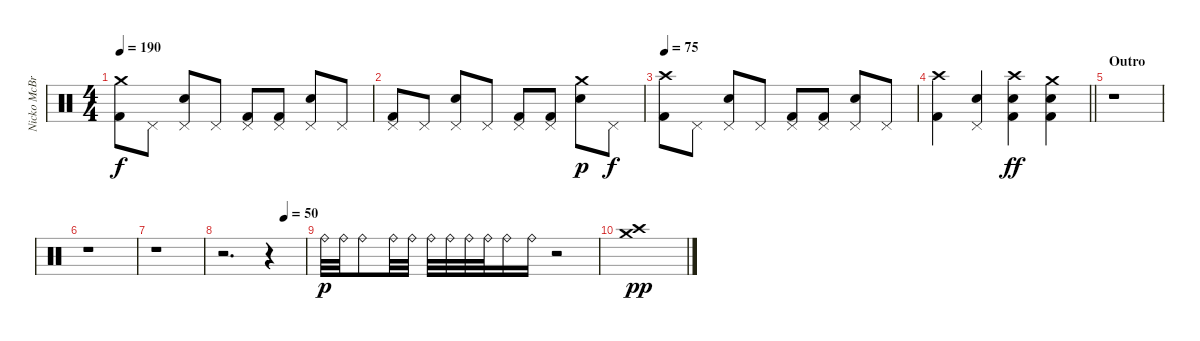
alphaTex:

\track ("Nicko McBrain" "Nicko McBr") {instrument percussion}
\staff {score}
\articulation defaults
\ts (4 4)
\tempo 190
\clef neutral
\ks c
("Crash medium (hit)" "Kick (hit) 2").8{dy f} "Pedal Hi-Hat (hit)".8 ("Pedal Hi-Hat (hit)" "Electric Snare (hit)").8 "Pedal Hi-Hat (hit)".8 ("Pedal Hi-Hat (hit)" "Kick (hit) 2").8 ("Pedal Hi-Hat (hit)" "Kick (hit) 2").8 ("Pedal Hi-Hat (hit)" "Electric Snare (hit)").8 "Pedal Hi-Hat (hit)".8 |
("Pedal Hi-Hat (hit)" "Kick (hit) 2").8 "Pedal Hi-Hat (hit)".8 ("Pedal Hi-Hat (hit)" "Electric Snare (hit)").8 "Pedal Hi-Hat (hit)".8 ("Pedal Hi-Hat (hit)" "Kick (hit) 2").8 ("Pedal Hi-Hat (hit)" "Kick (hit) 2").8 ("Crash medium (hit)" "Electric Snare (hit)").8{dy p} "Pedal Hi-Hat (hit)".8{dy f} |
\tempo 75
("Crash high (hit)" "Kick (hit) 2").8 "Pedal Hi-Hat (hit)".8 ("Pedal Hi-Hat (hit)" "Electric Snare (hit)").8 "Pedal Hi-Hat (hit)".8 ("Pedal Hi-Hat (hit)" "Kick (hit) 2").8 ("Pedal Hi-Hat (hit)" "Kick (hit) 2").8 ("Pedal Hi-Hat (hit)" "Electric Snare (hit)").8 "Pedal Hi-Hat (hit)".8 |
\barLineRight lightlight
("Crash high (hit)" "Kick (hit) 2").4 ("Pedal Hi-Hat (hit)" "Electric Snare (hit)").4 ("Crash high (hit)" "Electric Snare (hit)" "Kick (hit) 2").4{dy ff} ("Crash medium (hit)" "Electric Snare (hit)" "Kick (hit) 2").4 |
\section ("" "Outro")
r.1 |
r.1 |
r.1 |
\tempo (50 0.75)
r.2{d} r.4 |
"Ride (bell)".32{dy p} "Ride (bell)".32 "Ride (bell)".8 "Ride (bell)".32 "Ride (bell)".32 "Ride (bell)".32 "Ride (bell)".32 "Ride (bell)".32 "Ride (bell)".32 "Ride (bell)".16 "Ride (bell)".16 r.2 |
("Crash medium (hit)" "Crash high (hit)").1{dy pp}
